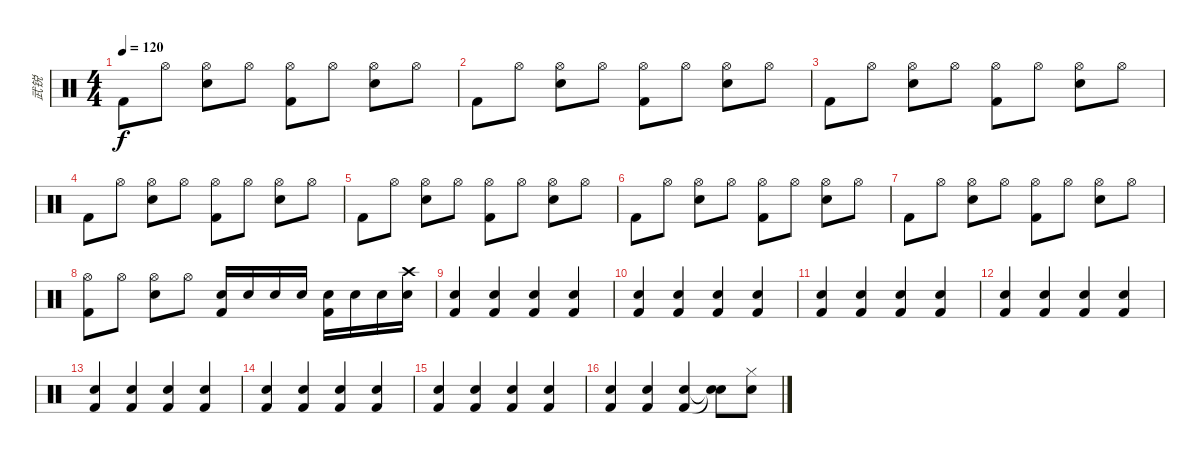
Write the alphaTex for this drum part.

\track ("武锐" "武锐") {instrument percussion}
\staff {score}
\articulation defaults
\ts (4 4)
\tempo 120
\clef neutral
\ks c "Kick (hit) 2".8{dy f} "Hi-Hat (open)".8
("Hi-Hat (open)" "Snare (hit) 2").8 "Hi-Hat (open)".8 ("Hi-Hat (open)" "Kick (hit) 2").8 "Hi-Hat (open)".8 ("Hi-Hat (open)" "Snare (hit) 2").8 "Hi-Hat (open)".8 |
"Kick (hit) 2".8 "Hi-Hat (open)".8 ("Hi-Hat (open)" "Snare (hit) 2").8 "Hi-Hat (open)".8 ("Hi-Hat (open)" "Kick (hit) 2").8 "Hi-Hat (open)".8 ("Hi-Hat (open)" "Snare (hit) 2").8 "Hi-Hat (open)".8 |
"Kick (hit) 2".8 "Hi-Hat (open)".8 ("Hi-Hat (open)" "Snare (hit) 2").8 "Hi-Hat (open)".8 ("Hi-Hat (open)" "Kick (hit) 2").8 "Hi-Hat (open)".8 ("Hi-Hat (open)" "Snare (hit) 2").8 "Hi-Hat (open)".8 |
"Kick (hit) 2".8 "Hi-Hat (open)".8 ("Hi-Hat (open)" "Snare (hit) 2").8 "Hi-Hat (open)".8 ("Hi-Hat (open)" "Kick (hit) 2").8 "Hi-Hat (open)".8 ("Hi-Hat (open)" "Snare (hit) 2").8 "Hi-Hat (open)".8 |
"Kick (hit) 2".8 "Hi-Hat (open)".8 ("Hi-Hat (open)" "Snare (hit) 2").8 "Hi-Hat (open)".8 ("Hi-Hat (open)" "Kick (hit) 2").8 "Hi-Hat (open)".8 ("Hi-Hat (open)" "Snare (hit) 2").8 "Hi-Hat (open)".8 |
"Kick (hit) 2".8 "Hi-Hat (open)".8 ("Hi-Hat (open)" "Snare (hit) 2").8 "Hi-Hat (open)".8 ("Hi-Hat (open)" "Kick (hit) 2").8 "Hi-Hat (open)".8 ("Hi-Hat (open)" "Snare (hit) 2").8 "Hi-Hat (open)".8 |
"Kick (hit) 2".8 "Hi-Hat (open)".8 ("Hi-Hat (open)" "Snare (hit) 2").8 "Hi-Hat (open)".8 ("Hi-Hat (open)" "Kick (hit) 2").8 "Hi-Hat (open)".8 ("Hi-Hat (open)" "Snare (hit) 2").8 "Hi-Hat (open)".8 |
("Hi-Hat (open)" "Kick (hit) 2").8 "Hi-Hat (open)".8 ("Hi-Hat (open)" "Snare (hit) 2").8 "Hi-Hat (open)".8 ("Snare (hit) 2" "Kick (hit) 2").16 "Snare (hit) 2".16 "Snare (hit) 2".16 "Snare (hit) 2".16 ("Snare (hit) 2" "Kick (hit) 2").16 "Snare (hit) 2".16 "Snare (hit) 2".16 ("Crash high (hit)" "Snare (hit) 2").16 |
("Kick (hit) 2" "Snare (hit) 2").4 ("Kick (hit) 2" "Snare (hit) 2").4 ("Kick (hit) 2" "Snare (hit) 2").4 ("Kick (hit) 2" "Snare (hit) 2").4 |
("Kick (hit) 2" "Snare (hit) 2").4 ("Kick (hit) 2" "Snare (hit) 2").4 ("Kick (hit) 2" "Snare (hit) 2").4 ("Kick (hit) 2" "Snare (hit) 2").4 |
("Kick (hit) 2" "Snare (hit) 2").4 ("Kick (hit) 2" "Snare (hit) 2").4 ("Kick (hit) 2" "Snare (hit) 2").4 ("Kick (hit) 2" "Snare (hit) 2").4 |
("Kick (hit) 2" "Snare (hit) 2").4 ("Kick (hit) 2" "Snare (hit) 2").4 ("Kick (hit) 2" "Snare (hit) 2").4 ("Kick (hit) 2" "Snare (hit) 2").4 |
("Kick (hit) 2" "Snare (hit) 2").4 ("Kick (hit) 2" "Snare (hit) 2").4 ("Kick (hit) 2" "Snare (hit) 2").4 ("Kick (hit) 2" "Snare (hit) 2").4 |
("Kick (hit) 2" "Snare (hit) 2").4 ("Kick (hit) 2" "Snare (hit) 2").4 ("Kick (hit) 2" "Snare (hit) 2").4 ("Kick (hit) 2" "Snare (hit) 2").4 |
("Kick (hit) 2" "Snare (hit) 2").4 ("Kick (hit) 2" "Snare (hit) 2").4 ("Kick (hit) 2" "Snare (hit) 2").4 ("Kick (hit) 2" "Snare (hit) 2").4 |
("Kick (hit) 2" "Snare (hit) 2").4 ("Kick (hit) 2" "Snare (hit) 2").4 ("Kick (hit) 2" "Snare (hit) 2").4 ("Snare (hit)"{t} "Snare (hit)"{t}).8 ("Hi-Hat (closed)" "Snare (hit) 2").8
